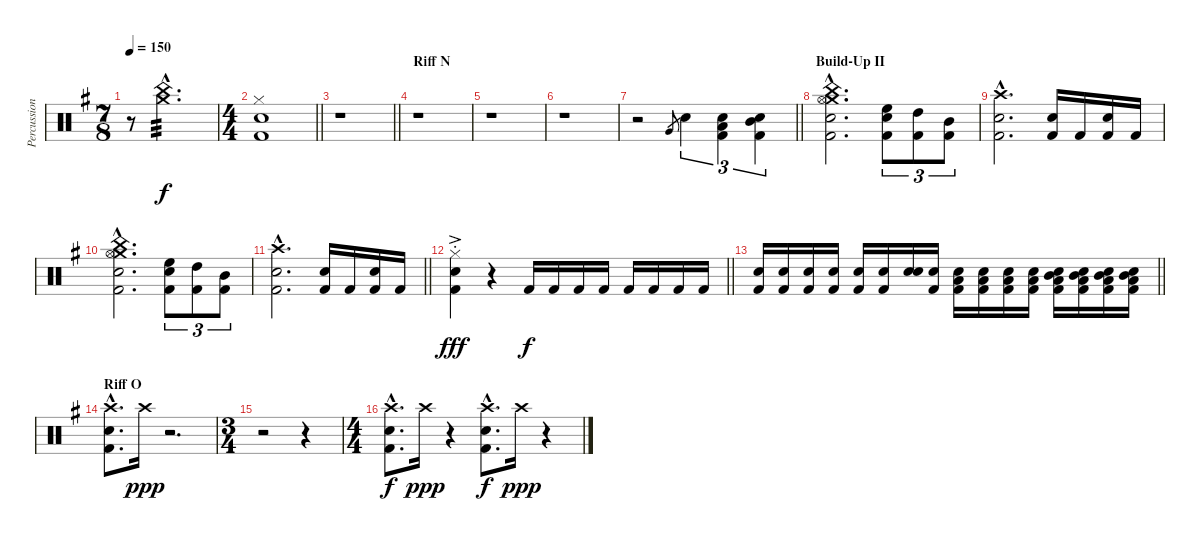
\track ("Percussion" "Percussion") {instrument percussion}
\staff {score}
\articulation defaults
\ts (7 8)
\tempo 150
\clef neutral
\ks eminor
r.8{dy f volume 0} ("Crash medium (hit)"{hac} "China (hit)"{hac}).2{d tp 3 volume 15} |
\ts (4 4)
\barLineRight lightlight
("Hi-Hat (closed)" "Snare (hit) 2" "Kick (hit) 2").1 |
\barLineRight lightlight
r.1 |
\section ("" "Riff N")
r.1 |
r.1 |
r.1 |
\barLineRight lightlight
r.2 "Very Low Tom (hit)".8{gr} "Snare (hit) 2".4{tu (3 2)} ("Low Tom (hit)" "Snare (hit) 2" "Kick (hit) 2").4{tu (3 2)} ("Mid Tom (hit)" "Snare (hit) 2" "Kick (hit) 2").4{tu (3 2)} |
\section ("" "Build-Up II")
("Crash medium (hit)"{hac} "China (hit)"{hac} "Hi-Hat (open)"{hac} "Snare (hit) 2"{hac} "Kick (hit) 2"{hac}).2{d} ("High Floor Tom (hit)" "Snare (hit) 2" "Kick (hit) 2").8{tu (3 2)} ("High Tom (hit)" "Kick (hit) 2").8{tu (3 2)} ("Mid Tom (hit)" "Kick (hit) 2").8{tu (3 2)} |
("Crash high (hit)"{hac} "Snare (hit) 2"{hac} "Kick (hit) 2"{hac}).2{d} ("Snare (hit) 2" "Kick (hit) 2").16 "Kick (hit) 2".16 ("Snare (hit) 2" "Kick (hit) 2").16 "Kick (hit) 2".16 |
("Crash medium (hit)"{hac} "China (hit)"{hac} "Hi-Hat (open)"{hac} "Snare (hit) 2"{hac} "Kick (hit) 2"{hac}).2{d} ("High Floor Tom (hit)" "Snare (hit) 2" "Kick (hit) 2").8{tu (3 2)} ("High Tom (hit)" "Kick (hit) 2").8{tu (3 2)} ("Mid Tom (hit)" "Kick (hit) 2").8{tu (3 2)} |
\barLineRight lightlight
("Crash high (hit)"{hac} "Snare (hit) 2"{hac} "Kick (hit) 2"{hac}).2{d} ("Snare (hit) 2" "Kick (hit) 2").16 "Kick (hit) 2".16 ("Snare (hit) 2" "Kick (hit) 2").16 "Kick (hit) 2".16 |
\barLineRight lightlight
("Hi-Hat (closed)"{ac st} "Snare (hit) 2"{ac st} "Kick (hit) 2"{ac st}).4{dy fff} r.4{volume 0} "Kick (hit) 2".16{dy f volume 15} "Kick (hit) 2".16 "Kick (hit) 2".16 "Kick (hit) 2".16 "Kick (hit) 2".16 "Kick (hit) 2".16 "Kick (hit) 2".16 "Kick (hit) 2".16 |
\barLineRight lightlight
("Snare (hit) 2" "Kick (hit) 2").16 ("Snare (hit) 2" "Kick (hit) 2").16 ("Snare (hit) 2" "Kick (hit) 2").16 ("Snare (hit) 2" "Kick (hit) 2").16 ("Snare (hit) 2" "Kick (hit) 2").16 ("Snare (hit) 2" "Kick (hit) 2").16 ("Snare (hit) 2" "Snare (hit)").16 ("Snare (hit) 2" "Kick (hit) 2").16 ("Low Tom (hit)" "Snare (hit) 2" "Kick (hit) 2").16 ("Low Tom (hit)" "Snare (hit) 2" "Kick (hit) 2").16 ("Low Tom (hit)" "Snare (hit) 2" "Kick (hit) 2").16 ("Low Tom (hit)" "Snare (hit) 2" "Kick (hit) 2").16 ("Mid Tom (hit)" "Low Tom (hit)" "Snare (hit) 2" "Kick (hit) 2").16 ("Mid Tom (hit)" "Low Tom (hit)" "Snare (hit) 2" "Kick (hit) 2").16 ("Mid Tom (hit)" "Low Tom (hit)" "Snare (hit) 2" "Kick (hit) 2").16 ("Mid Tom (hit)" "Low Tom (hit)" "Snare (hit) 2" "Kick (hit) 2").16 |
\section ("" "Riff O")
("Crash high (hit)"{hac} "Snare (hit) 2"{hac} "Kick (hit) 2"{hac}).8{d} "Crash high (hit)".16{dy ppp} r.2{d} |
\ts (3 4)
r.2 r.4 |
\ts (4 4)
("Crash high (hit)"{hac} "Snare (hit) 2"{hac} "Kick (hit) 2"{hac}).8{d dy f} "Crash high (hit)".16{dy ppp} r.4 ("Crash high (hit)"{hac} "Snare (hit) 2"{hac} "Kick (hit) 2"{hac}).8{d dy f} "Crash high (hit)".16{dy ppp} r.4
